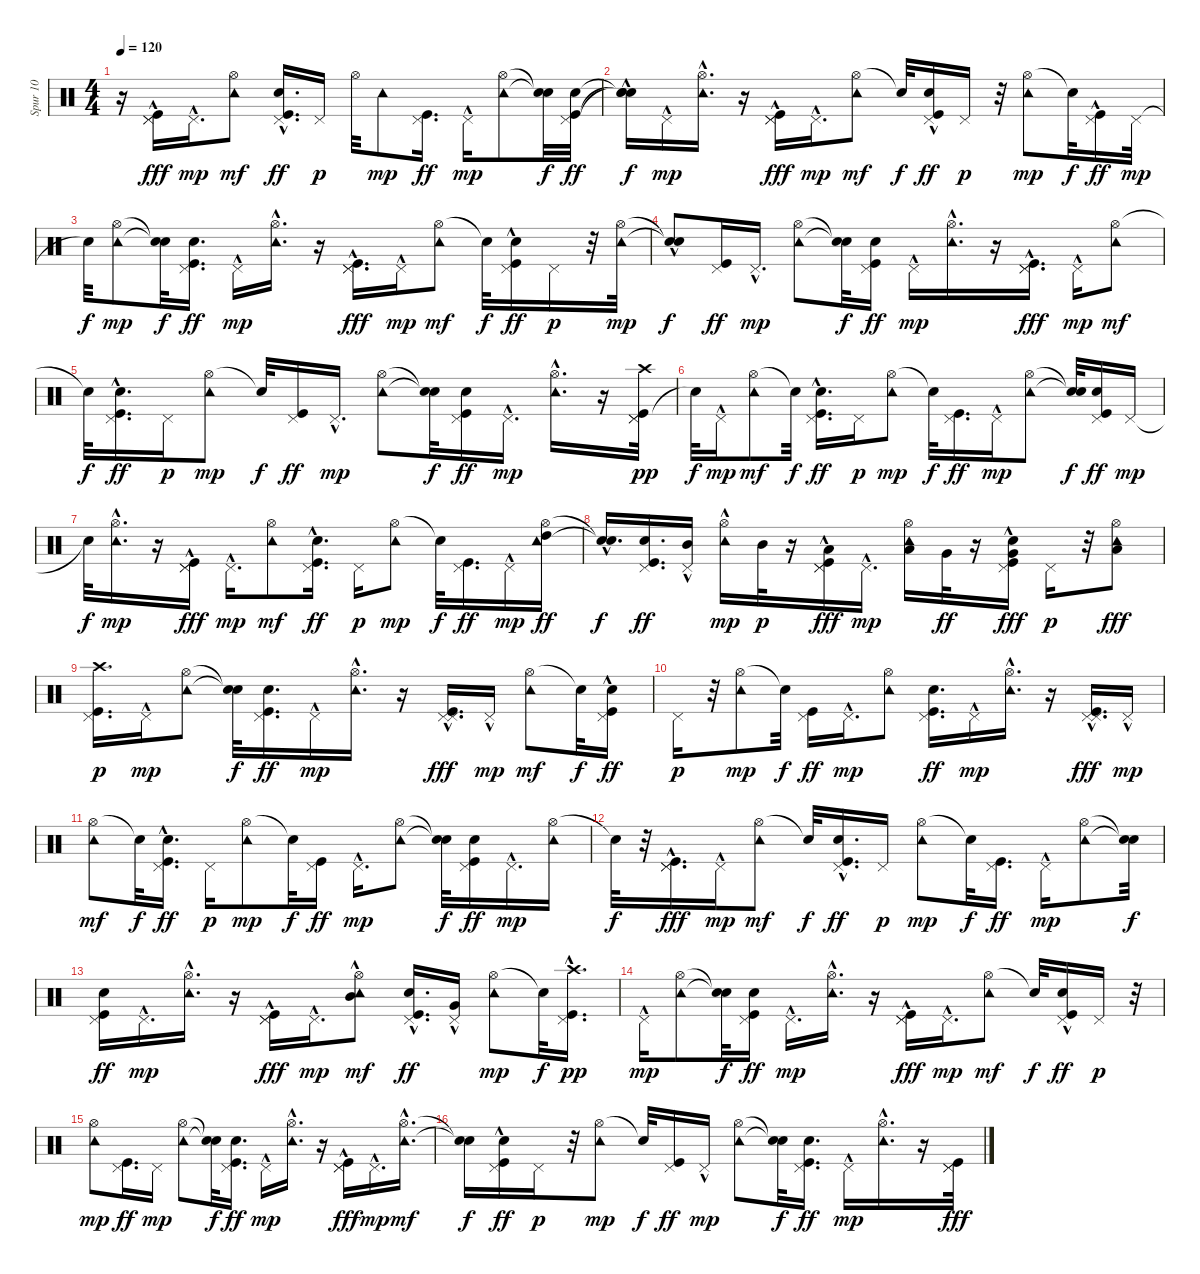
\track ("Spur 10" "Spur 10") {instrument percussion}
\staff {score}
\articulation defaults
\ts (4 4)
\tempo 120
\clef neutral
\ks c
r.16{dy mp} ("Pedal Hi-Hat (hit)" "Pedal Hi-Hat (hit)" "Kick (hit)"{hac}).16{dy fff} "Pedal Hi-Hat (hit)"{hac}.16{d dy mp} ("Hi-Hat (open)" "Tambourine (hit)").8{dy mf} ("Pedal Hi-Hat (hit)" "Kick (hit)" "Snare (hit) 2"{hac}).16{d dy ff} "Pedal Hi-Hat (hit)".16{dy p} "Hi-Hat (open)".32 "Tambourine (hit)".8{dy mp} ("Pedal Hi-Hat (hit)" "Kick (hit)").16{d dy ff} "Pedal Hi-Hat (hit)"{hac}.16{dy mp} ("Hi-Hat (open)" "Tambourine (hit)").8 ("Snare (hit)"{t} "Snare (hit)"{t}).32{dy f} ("Pedal Hi-Hat (hit)" "Kick (hit)" "Snare (hit) 2").32{dy ff} |
("Snare (hit)"{t} "Snare (hit)"{hac t} "Snare (hit)"{t}).16{dy f} "Pedal Hi-Hat (hit)"{hac}.16{dy mp} ("Hi-Hat (open)" "Tambourine (hit)"{hac}).16{d} r.16 ("Pedal Hi-Hat (hit)" "Pedal Hi-Hat (hit)" "Kick (hit)"{hac}).16{dy fff} "Pedal Hi-Hat (hit)"{hac}.16{d dy mp} ("Hi-Hat (open)" "Tambourine (hit)").8{dy mf} "Snare (hit)"{t}.32{dy f} ("Pedal Hi-Hat (hit)" "Kick (hit)" "Snare (hit) 2"{hac}).16{dy ff} "Pedal Hi-Hat (hit)".16{dy p} r.32 ("Hi-Hat (open)" "Tambourine (hit)").8{dy mp} "Snare (hit)"{t}.32{dy f} ("Pedal Hi-Hat (hit)" "Kick (hit)"{hac}).16{dy ff} "Pedal Hi-Hat (hit)".32{dy mp} |
"Snare (hit)"{t}.32{dy f} ("Hi-Hat (open)" "Tambourine (hit)").8{dy mp} ("Snare (hit)"{t} "Snare (hit)"{t}).32{dy f} ("Pedal Hi-Hat (hit)" "Kick (hit)" "Snare (hit) 2").16{d dy ff} "Pedal Hi-Hat (hit)"{hac}.16{dy mp} ("Hi-Hat (open)" "Tambourine (hit)"{hac}).16{d} r.16 ("Pedal Hi-Hat (hit)" "Pedal Hi-Hat (hit)" "Kick (hit)"{hac}).16{d dy fff} "Pedal Hi-Hat (hit)"{hac}.16{dy mp} ("Hi-Hat (open)" "Tambourine (hit)").8{dy mf} "Snare (hit)"{t}.32{dy f} ("Pedal Hi-Hat (hit)" "Kick (hit)" "Snare (hit) 2"{hac}).16{dy ff} "Pedal Hi-Hat (hit)".16{dy p} r.32 ("Hi-Hat (open)" "Tambourine (hit)").32{dy mp} |
("Snare (hit)"{t} "Snare (hit)"{hac t}).8{dy f} ("Pedal Hi-Hat (hit)" "Kick (hit)").16{dy ff} "Pedal Hi-Hat (hit)"{hac}.16{d dy mp} ("Hi-Hat (open)" "Tambourine (hit)").8 ("Snare (hit)"{t} "Snare (hit)"{t}).32{dy f} ("Pedal Hi-Hat (hit)" "Kick (hit)" "Snare (hit) 2").16{dy ff} "Pedal Hi-Hat (hit)"{hac}.16{dy mp} ("Hi-Hat (open)" "Tambourine (hit)"{hac}).16{d} r.16 ("Pedal Hi-Hat (hit)" "Pedal Hi-Hat (hit)" "Kick (hit)"{hac}).16{d dy fff} "Pedal Hi-Hat (hit)"{hac}.16{dy mp} ("Hi-Hat (open)" "Tambourine (hit)").8{dy mf} |
"Snare (hit)"{t}.32{dy f} ("Pedal Hi-Hat (hit)" "Kick (hit)" "Snare (hit) 2"{hac}).16{d dy ff} "Pedal Hi-Hat (hit)".16{dy p} ("Hi-Hat (open)" "Tambourine (hit)").8{dy mp} "Snare (hit)"{t}.32{dy f} ("Pedal Hi-Hat (hit)" "Kick (hit)").16{dy ff} "Pedal Hi-Hat (hit)"{hac}.16{d dy mp} ("Hi-Hat (open)" "Tambourine (hit)").8 ("Snare (hit)"{t} "Snare (hit)"{t}).32{dy f} ("Pedal Hi-Hat (hit)" "Kick (hit)" "Snare (hit) 2").16{dy ff} "Pedal Hi-Hat (hit)"{hac}.16{d dy mp} ("Hi-Hat (open)" "Tambourine (hit)"{hac}).16{d} r.16 ("Pedal Hi-Hat (hit)" "Pedal Hi-Hat (hit)" "Kick (hit)" "Crash high (hit)").32{dy pp} |
"Snare (hit)"{t}.32{dy f} "Pedal Hi-Hat (hit)"{hac}.16{dy mp} ("Hi-Hat (open)" "Tambourine (hit)").8{dy mf} "Snare (hit)"{t}.32{dy f} ("Pedal Hi-Hat (hit)" "Kick (hit)"{hac} "Snare (hit) 2"{hac}).16{d dy ff} "Pedal Hi-Hat (hit)".16{dy p} ("Hi-Hat (open)" "Tambourine (hit)").8{dy mp} "Snare (hit)"{t}.32{dy f} ("Pedal Hi-Hat (hit)" "Kick (hit)").16{d dy ff} "Pedal Hi-Hat (hit)"{hac}.16{dy mp} ("Hi-Hat (open)" "Tambourine (hit)").8 ("Snare (hit)"{t} "Snare (hit)"{t}).32{dy f} ("Pedal Hi-Hat (hit)" "Kick (hit)" "Snare (hit) 2").16{dy ff} "Pedal Hi-Hat (hit)".16{dy mp} |
"Snare (hit)"{t}.32{dy f} ("Hi-Hat (open)" "Tambourine (hit)"{hac}).16{d dy mp} r.16 ("Pedal Hi-Hat (hit)" "Pedal Hi-Hat (hit)" "Kick (hit)"{hac}).16{dy fff} "Pedal Hi-Hat (hit)"{hac}.16{d dy mp} ("Hi-Hat (open)" "Tambourine (hit)").8{dy mf} ("Pedal Hi-Hat (hit)" "Kick (hit)" "Snare (hit) 2"{hac}).16{d dy ff} "Pedal Hi-Hat (hit)".16{dy p} ("Hi-Hat (open)" "Tambourine (hit)").8{dy mp} "Snare (hit)"{t}.32{dy f} ("Pedal Hi-Hat (hit)" "Kick (hit)").16{d dy ff} "Pedal Hi-Hat (hit)"{hac}.16{dy mp} ("Hi-Hat (open)" "Tambourine (hit)" "High Tom (hit)").16{dy ff} |
("Snare (hit)"{hac t} "Snare (hit)"{hac t}).16{d dy f} ("Pedal Hi-Hat (hit)" "Kick (hit)" "Snare (hit) 2").16{d dy ff} ("Pedal Hi-Hat (hit)"{hac} "Mid Tom (hit)").16 ("Hi-Hat (open)" "Tambourine (hit)"{hac}).16{dy mp} "Mid Tom (hit)".32{dy p} r.16 ("Pedal Hi-Hat (hit)" "Pedal Hi-Hat (hit)" "Kick (hit)"{hac} "Low Tom (hit)"{hac}).16{dy fff} "Pedal Hi-Hat (hit)"{hac}.16{d dy mp} ("Hi-Hat (open)" "Tambourine (hit)" "Low Tom (hit)").16 "Very Low Tom (hit)".32{dy ff} r.16 ("Pedal Hi-Hat (hit)" "Kick (hit)" "Snare (hit) 2"{hac} "Very Low Tom (hit)").16{dy fff} "Pedal Hi-Hat (hit)".16{dy p} r.32 ("Hi-Hat (open)" "Tambourine (hit)" "Low Floor Tom (hit)").8{dy fff} |
("Pedal Hi-Hat (hit)" "Kick (hit)" "Crash high (hit)").16{d dy p} "Pedal Hi-Hat (hit)"{hac}.16{dy mp} ("Hi-Hat (open)" "Tambourine (hit)").8 ("Snare (hit)"{t} "Snare (hit)"{t}).32{dy f} ("Pedal Hi-Hat (hit)" "Kick (hit)" "Snare (hit) 2").16{d dy ff} "Pedal Hi-Hat (hit)"{hac}.16{dy mp} ("Hi-Hat (open)" "Tambourine (hit)"{hac}).16{d} r.16 ("Pedal Hi-Hat (hit)" "Pedal Hi-Hat (hit)" "Kick (hit)"{hac}).16{d dy fff} "Pedal Hi-Hat (hit)"{hac}.16{dy mp} ("Hi-Hat (open)" "Tambourine (hit)").8{dy mf} "Snare (hit)"{t}.32{dy f} ("Pedal Hi-Hat (hit)" "Kick (hit)"{hac} "Snare (hit) 2"{hac}).16{dy ff} |
"Pedal Hi-Hat (hit)".16{dy p} r.32 ("Hi-Hat (open)" "Tambourine (hit)").8{dy mp} "Snare (hit)"{t}.32{dy f} ("Pedal Hi-Hat (hit)" "Kick (hit)").16{dy ff} "Pedal Hi-Hat (hit)"{hac}.16{d dy mp} ("Hi-Hat (open)" "Tambourine (hit)").8 ("Pedal Hi-Hat (hit)" "Kick (hit)" "Snare (hit) 2").16{d dy ff} "Pedal Hi-Hat (hit)"{hac}.16{dy mp} ("Hi-Hat (open)" "Tambourine (hit)"{hac}).16{d} r.16 ("Pedal Hi-Hat (hit)" "Pedal Hi-Hat (hit)" "Kick (hit)"{hac}).16{d dy fff} "Pedal Hi-Hat (hit)"{hac}.16{dy mp} |
("Hi-Hat (open)" "Tambourine (hit)").8{dy mf} "Snare (hit)"{t}.32{dy f} ("Pedal Hi-Hat (hit)" "Kick (hit)" "Snare (hit) 2"{hac}).16{d dy ff} "Pedal Hi-Hat (hit)".16{dy p} ("Hi-Hat (open)" "Tambourine (hit)").8{dy mp} "Snare (hit)"{t}.32{dy f} ("Pedal Hi-Hat (hit)" "Kick (hit)").16{dy ff} "Pedal Hi-Hat (hit)"{hac}.16{d dy mp} ("Hi-Hat (open)" "Tambourine (hit)").8 ("Snare (hit)"{t} "Snare (hit)"{t}).32{dy f} ("Pedal Hi-Hat (hit)" "Kick (hit)" "Snare (hit) 2").16{dy ff} "Pedal Hi-Hat (hit)"{hac}.16{d dy mp} ("Hi-Hat (open)" "Tambourine (hit)").16 |
"Snare (hit)"{t}.32{dy f} r.32 ("Pedal Hi-Hat (hit)" "Pedal Hi-Hat (hit)" "Kick (hit)"{hac}).16{d dy fff} "Pedal Hi-Hat (hit)"{hac}.16{dy mp} ("Hi-Hat (open)" "Tambourine (hit)").8{dy mf} "Snare (hit)"{t}.32{dy f} ("Pedal Hi-Hat (hit)" "Kick (hit)"{hac} "Snare (hit) 2"{hac}).16{d dy ff} "Pedal Hi-Hat (hit)".16{dy p} ("Hi-Hat (open)" "Tambourine (hit)").8{dy mp} "Snare (hit)"{t}.32{dy f} ("Pedal Hi-Hat (hit)" "Kick (hit)").16{d dy ff} "Pedal Hi-Hat (hit)"{hac}.16{dy mp} ("Hi-Hat (open)" "Tambourine (hit)").8 ("Snare (hit)"{t} "Snare (hit)"{t}).32{dy f} |
("Pedal Hi-Hat (hit)" "Kick (hit)" "Snare (hit) 2").16{dy ff} "Pedal Hi-Hat (hit)"{hac}.16{d dy mp} ("Hi-Hat (open)" "Tambourine (hit)"{hac}).16{d} r.16 ("Pedal Hi-Hat (hit)" "Pedal Hi-Hat (hit)" "Kick (hit)"{hac}).16{dy fff} "Pedal Hi-Hat (hit)"{hac}.16{d dy mp} ("Hi-Hat (open)" "Tambourine (hit)"{hac} "Mid Tom (hit)").8{dy mf} ("Pedal Hi-Hat (hit)" "Kick (hit)"{hac} "Snare (hit) 2"{hac}).16{d dy ff} ("Pedal Hi-Hat (hit)" "Very Low Tom (hit)"{hac}).16 ("Hi-Hat (open)" "Tambourine (hit)").8{dy mp} "Snare (hit)"{t}.32{dy f} ("Pedal Hi-Hat (hit)" "Kick (hit)"{hac} "Crash high (hit)").16{d dy pp} |
"Pedal Hi-Hat (hit)"{hac}.16{dy mp} ("Hi-Hat (open)" "Tambourine (hit)").8 ("Snare (hit)"{t} "Snare (hit)"{t}).32{dy f} ("Pedal Hi-Hat (hit)" "Kick (hit)" "Snare (hit) 2").16{dy ff} "Pedal Hi-Hat (hit)"{hac}.16{d dy mp} ("Hi-Hat (open)" "Tambourine (hit)"{hac}).16{d} r.16 ("Pedal Hi-Hat (hit)" "Pedal Hi-Hat (hit)" "Kick (hit)"{hac}).16{dy fff} "Pedal Hi-Hat (hit)"{hac}.16{d dy mp} ("Hi-Hat (open)" "Tambourine (hit)").8{dy mf} "Snare (hit)"{t}.32{dy f} ("Pedal Hi-Hat (hit)" "Kick (hit)"{hac} "Snare (hit) 2"{hac}).16{dy ff} "Pedal Hi-Hat (hit)".16{dy p} r.32 |
("Hi-Hat (open)" "Tambourine (hit)").8{dy mp} ("Pedal Hi-Hat (hit)" "Kick (hit)").16{d dy ff} "Pedal Hi-Hat (hit)".16{dy mp} ("Hi-Hat (open)" "Tambourine (hit)").8 ("Snare (hit)"{t} "Snare (hit)"{t}).32{dy f} ("Pedal Hi-Hat (hit)" "Kick (hit)" "Snare (hit) 2").16{d dy ff} "Pedal Hi-Hat (hit)"{hac}.16{dy mp} ("Hi-Hat (open)" "Tambourine (hit)"{hac}).16{d} r.16 ("Pedal Hi-Hat (hit)" "Pedal Hi-Hat (hit)" "Kick (hit)"{hac}).16{dy fff} "Pedal Hi-Hat (hit)"{hac}.16{d dy mp} ("Hi-Hat (open)"{hac} "Tambourine (hit)"{hac}).16{d dy mf} |
("Snare (hit)"{t} "Snare (hit)"{t}).16{dy f} ("Pedal Hi-Hat (hit)" "Kick (hit)" "Snare (hit) 2"{hac}).16{dy ff} "Pedal Hi-Hat (hit)".16{dy p} r.32 ("Hi-Hat (open)" "Tambourine (hit)").8{dy mp} "Snare (hit)"{t}.32{dy f} ("Pedal Hi-Hat (hit)" "Kick (hit)").16{dy ff} "Pedal Hi-Hat (hit)"{hac}.16{dy mp} ("Hi-Hat (open)" "Tambourine (hit)").8 ("Snare (hit)"{t} "Snare (hit)"{t}).32{dy f} ("Pedal Hi-Hat (hit)" "Kick (hit)" "Snare (hit) 2").16{d dy ff} "Pedal Hi-Hat (hit)"{hac}.16{dy mp} ("Hi-Hat (open)" "Tambourine (hit)"{hac}).16{d} r.16 ("Pedal Hi-Hat (hit)" "Pedal Hi-Hat (hit)" "Kick (hit)").32{dy fff}
